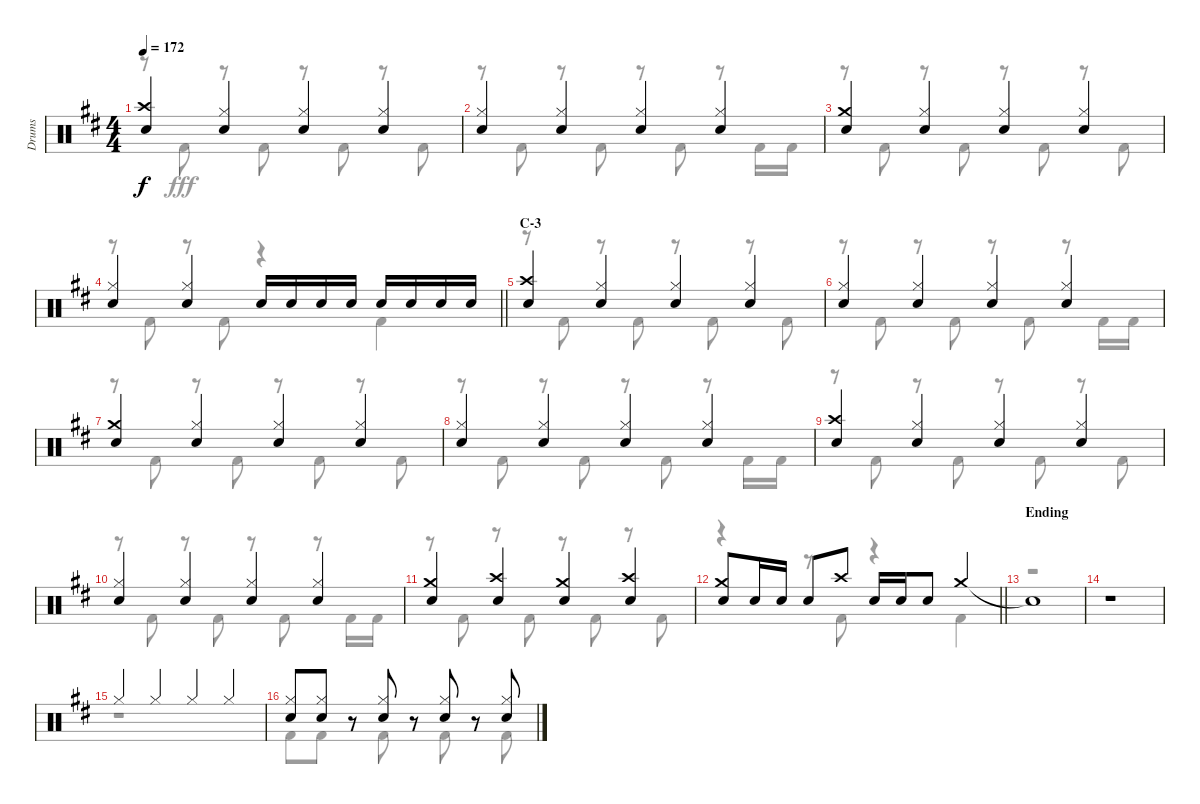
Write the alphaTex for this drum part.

\track ("Drums" "Drums") {instrument percussion}
\staff {score}
\articulation defaults
\voice
\ts (4 4)
\tempo 172
\clef neutral
\ks d
("Crash high (hit)" "Snare (hit) 2").4{dy f} ("Hi-Hat (closed)" "Snare (hit) 2").4 ("Hi-Hat (closed)" "Snare (hit) 2").4 ("Hi-Hat (closed)" "Snare (hit) 2").4 |
("Hi-Hat (closed)" "Snare (hit) 2").4 ("Hi-Hat (closed)" "Snare (hit) 2").4 ("Hi-Hat (closed)" "Snare (hit) 2").4 ("Hi-Hat (closed)" "Snare (hit) 2").4 |
("Crash medium (hit)" "Snare (hit) 2").4 ("Hi-Hat (closed)" "Snare (hit) 2").4 ("Hi-Hat (closed)" "Snare (hit) 2").4 ("Hi-Hat (closed)" "Snare (hit) 2").4 |
\barLineRight lightlight
("Hi-Hat (closed)" "Snare (hit) 2").4 ("Hi-Hat (closed)" "Snare (hit) 2").4 "Snare (hit) 2".16 "Snare (hit) 2".16 "Snare (hit) 2".16 "Snare (hit) 2".16 "Snare (hit) 2".16 "Snare (hit) 2".16 "Snare (hit) 2".16 "Snare (hit) 2".16 |
\section ("" "C-3")
("Crash high (hit)" "Snare (hit) 2").4 ("Hi-Hat (closed)" "Snare (hit) 2").4 ("Hi-Hat (closed)" "Snare (hit) 2").4 ("Hi-Hat (closed)" "Snare (hit) 2").4 |
("Hi-Hat (closed)" "Snare (hit) 2").4 ("Hi-Hat (closed)" "Snare (hit) 2").4 ("Hi-Hat (closed)" "Snare (hit) 2").4 ("Hi-Hat (closed)" "Snare (hit) 2").4 |
("Crash medium (hit)" "Snare (hit) 2").4 ("Hi-Hat (closed)" "Snare (hit) 2").4 ("Hi-Hat (closed)" "Snare (hit) 2").4 ("Hi-Hat (closed)" "Snare (hit) 2").4 |
("Hi-Hat (closed)" "Snare (hit) 2").4 ("Hi-Hat (closed)" "Snare (hit) 2").4 ("Hi-Hat (closed)" "Snare (hit) 2").4 ("Hi-Hat (closed)" "Snare (hit) 2").4 |
("Crash high (hit)" "Snare (hit) 2").4 ("Hi-Hat (closed)" "Snare (hit) 2").4 ("Hi-Hat (closed)" "Snare (hit) 2").4 ("Hi-Hat (closed)" "Snare (hit) 2").4 |
("Hi-Hat (closed)" "Snare (hit) 2").4 ("Hi-Hat (closed)" "Snare (hit) 2").4 ("Hi-Hat (closed)" "Snare (hit) 2").4 ("Hi-Hat (closed)" "Snare (hit) 2").4 |
("Crash medium (hit)" "Snare (hit) 2").4 ("Crash high (hit)" "Snare (hit) 2").4 ("Crash medium (hit)" "Snare (hit) 2").4 ("Crash high (hit)" "Snare (hit) 2").4 |
\barLineRight lightlight
("Crash medium (hit)" "Snare (hit) 2").8 "Snare (hit) 2".16 "Snare (hit) 2".16 "Snare (hit) 2".8 "Crash high (hit)".8 "Snare (hit) 2".16 "Snare (hit) 2".16 "Snare (hit) 2".8 "Crash medium (hit)".4 |
\section ("" "Ending")
"Snare (hit)"{t}.1 |
r.1 |
"Hi-Hat (closed)".4 "Hi-Hat (closed)".4 "Hi-Hat (closed)".4 "Hi-Hat (closed)".4 |
("Hi-Hat (closed)" "Snare (hit) 2").8 ("Hi-Hat (closed)" "Snare (hit) 2").8 r.8 ("Hi-Hat (closed)" "Snare (hit) 2").8 r.8 ("Hi-Hat (closed)" "Snare (hit) 2").8 r.8 ("Hi-Hat (closed)" "Snare (hit) 2").8
\voice
\clef neutral
\ottava regular
\simile none
\ks d
r.8{dy fff} "Kick (hit) 2".8 r.8 "Kick (hit) 2".8 r.8 "Kick (hit) 2".8 r.8 "Kick (hit) 2".8 |
r.8 "Kick (hit) 2".8 r.8 "Kick (hit) 2".8 r.8 "Kick (hit) 2".8 r.8 "Kick (hit) 2".16 "Kick (hit) 2".16 |
r.8 "Kick (hit) 2".8 r.8 "Kick (hit) 2".8 r.8 "Kick (hit) 2".8 r.8 "Kick (hit) 2".8 |
\barLineRight lightlight
r.8 "Kick (hit) 2".8 r.8 "Kick (hit) 2".8 r.4 "Kick (hit) 2".4 |
r.8 "Kick (hit) 2".8 r.8 "Kick (hit) 2".8 r.8 "Kick (hit) 2".8 r.8 "Kick (hit) 2".8 |
r.8 "Kick (hit) 2".8 r.8 "Kick (hit) 2".8 r.8 "Kick (hit) 2".8 r.8 "Kick (hit) 2".16 "Kick (hit) 2".16 |
r.8 "Kick (hit) 2".8 r.8 "Kick (hit) 2".8 r.8 "Kick (hit) 2".8 r.8 "Kick (hit) 2".8 |
r.8 "Kick (hit) 2".8 r.8 "Kick (hit) 2".8 r.8 "Kick (hit) 2".8 r.8 "Kick (hit) 2".16 "Kick (hit) 2".16 |
r.8 "Kick (hit) 2".8 r.8 "Kick (hit) 2".8 r.8 "Kick (hit) 2".8 r.8 "Kick (hit) 2".8 |
r.8 "Kick (hit) 2".8 r.8 "Kick (hit) 2".8 r.8 "Kick (hit) 2".8 r.8 "Kick (hit) 2".16 "Kick (hit) 2".16 |
r.8 "Kick (hit) 2".8 r.8 "Kick (hit) 2".8 r.8 "Kick (hit) 2".8 r.8 "Kick (hit) 2".8 |
\barLineRight lightlight
r.4 r.8 "Kick (hit) 2".8 r.4 "Kick (hit) 2".4 |
r.1 |
r.1 |
r.1 |
"Kick (hit) 2".8 "Kick (hit) 2".8 r.8 "Kick (hit) 2".8 r.8 "Kick (hit) 2".8 r.8 "Kick (hit) 2".8
